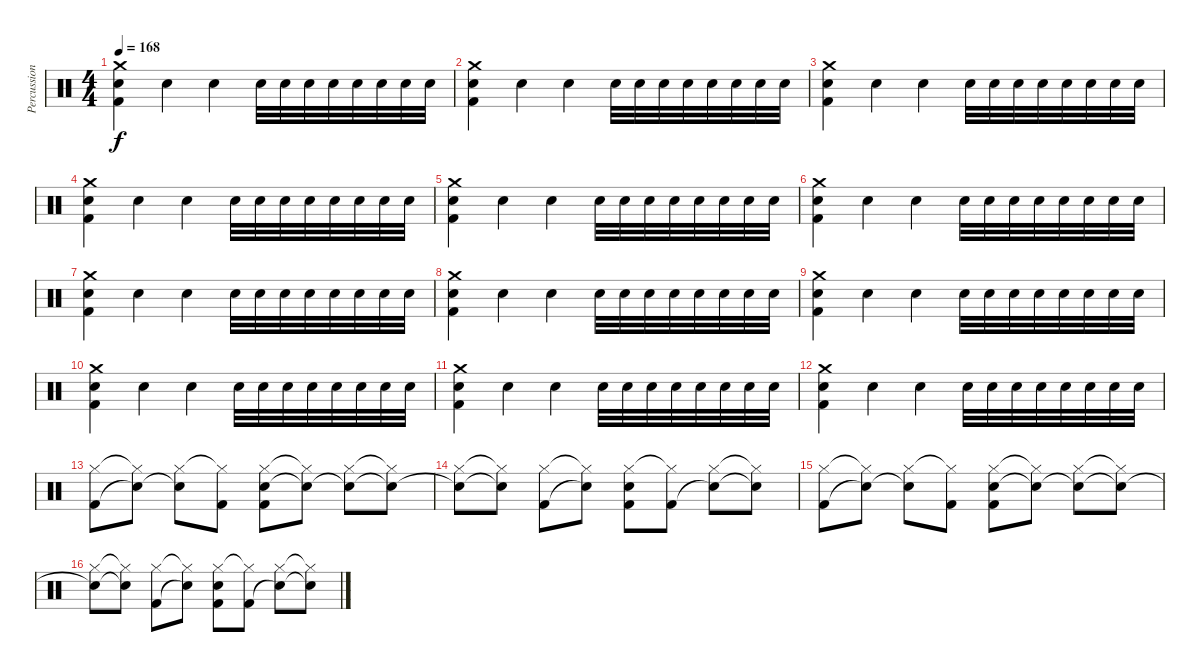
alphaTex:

\track ("Percussion" "Percussion") {instrument percussion}
\staff {score}
\articulation defaults
\ts (4 4)
\tempo 168
\clef neutral
\ks c
("Crash medium (hit)" "Electric Snare (hit)" "Kick (hit) 2").4{dy f} "Electric Snare (hit)".4 "Electric Snare (hit)".4 "Electric Snare (hit)".32 "Electric Snare (hit)".32 "Electric Snare (hit)".32 "Electric Snare (hit)".32 "Electric Snare (hit)".32 "Electric Snare (hit)".32 "Electric Snare (hit)".32 "Electric Snare (hit)".32 |
("Crash medium (hit)" "Electric Snare (hit)" "Kick (hit) 2").4 "Electric Snare (hit)".4 "Electric Snare (hit)".4 "Electric Snare (hit)".32 "Electric Snare (hit)".32 "Electric Snare (hit)".32 "Electric Snare (hit)".32 "Electric Snare (hit)".32 "Electric Snare (hit)".32 "Electric Snare (hit)".32 "Electric Snare (hit)".32 |
("Crash medium (hit)" "Electric Snare (hit)" "Kick (hit) 2").4 "Electric Snare (hit)".4 "Electric Snare (hit)".4 "Electric Snare (hit)".32 "Electric Snare (hit)".32 "Electric Snare (hit)".32 "Electric Snare (hit)".32 "Electric Snare (hit)".32 "Electric Snare (hit)".32 "Electric Snare (hit)".32 "Electric Snare (hit)".32 |
("Crash medium (hit)" "Electric Snare (hit)" "Kick (hit) 2").4 "Electric Snare (hit)".4 "Electric Snare (hit)".4 "Electric Snare (hit)".32 "Electric Snare (hit)".32 "Electric Snare (hit)".32 "Electric Snare (hit)".32 "Electric Snare (hit)".32 "Electric Snare (hit)".32 "Electric Snare (hit)".32 "Electric Snare (hit)".32 |
("Crash medium (hit)" "Electric Snare (hit)" "Kick (hit) 2").4 "Electric Snare (hit)".4 "Electric Snare (hit)".4 "Electric Snare (hit)".32 "Electric Snare (hit)".32 "Electric Snare (hit)".32 "Electric Snare (hit)".32 "Electric Snare (hit)".32 "Electric Snare (hit)".32 "Electric Snare (hit)".32 "Electric Snare (hit)".32 |
("Crash medium (hit)" "Electric Snare (hit)" "Kick (hit) 2").4 "Electric Snare (hit)".4 "Electric Snare (hit)".4 "Electric Snare (hit)".32 "Electric Snare (hit)".32 "Electric Snare (hit)".32 "Electric Snare (hit)".32 "Electric Snare (hit)".32 "Electric Snare (hit)".32 "Electric Snare (hit)".32 "Electric Snare (hit)".32 |
("Crash medium (hit)" "Electric Snare (hit)" "Kick (hit) 2").4 "Electric Snare (hit)".4 "Electric Snare (hit)".4 "Electric Snare (hit)".32 "Electric Snare (hit)".32 "Electric Snare (hit)".32 "Electric Snare (hit)".32 "Electric Snare (hit)".32 "Electric Snare (hit)".32 "Electric Snare (hit)".32 "Electric Snare (hit)".32 |
("Crash medium (hit)" "Electric Snare (hit)" "Kick (hit) 2").4 "Electric Snare (hit)".4 "Electric Snare (hit)".4 "Electric Snare (hit)".32 "Electric Snare (hit)".32 "Electric Snare (hit)".32 "Electric Snare (hit)".32 "Electric Snare (hit)".32 "Electric Snare (hit)".32 "Electric Snare (hit)".32 "Electric Snare (hit)".32 |
("Crash medium (hit)" "Electric Snare (hit)" "Kick (hit) 2").4 "Electric Snare (hit)".4 "Electric Snare (hit)".4 "Electric Snare (hit)".32 "Electric Snare (hit)".32 "Electric Snare (hit)".32 "Electric Snare (hit)".32 "Electric Snare (hit)".32 "Electric Snare (hit)".32 "Electric Snare (hit)".32 "Electric Snare (hit)".32 |
("Crash medium (hit)" "Electric Snare (hit)" "Kick (hit) 2").4 "Electric Snare (hit)".4 "Electric Snare (hit)".4 "Electric Snare (hit)".32 "Electric Snare (hit)".32 "Electric Snare (hit)".32 "Electric Snare (hit)".32 "Electric Snare (hit)".32 "Electric Snare (hit)".32 "Electric Snare (hit)".32 "Electric Snare (hit)".32 |
("Crash medium (hit)" "Electric Snare (hit)" "Kick (hit) 2").4 "Electric Snare (hit)".4 "Electric Snare (hit)".4 "Electric Snare (hit)".32 "Electric Snare (hit)".32 "Electric Snare (hit)".32 "Electric Snare (hit)".32 "Electric Snare (hit)".32 "Electric Snare (hit)".32 "Electric Snare (hit)".32 "Electric Snare (hit)".32 |
("Crash medium (hit)" "Electric Snare (hit)" "Kick (hit) 2").4 "Electric Snare (hit)".4 "Electric Snare (hit)".4 "Electric Snare (hit)".32 "Electric Snare (hit)".32 "Electric Snare (hit)".32 "Electric Snare (hit)".32 "Electric Snare (hit)".32 "Electric Snare (hit)".32 "Electric Snare (hit)".32 "Electric Snare (hit)".32 |
("Hi-Hat (closed)" "Kick (hit) 2").8 ("Hi-Hat (closed)"{t} "Snare (hit)"{t}).8 ("Hi-Hat (closed)" "Snare (hit)"{t}).8 ("Hi-Hat (closed)"{t} "Kick (hit) 2").8 ("Hi-Hat (closed)" "Electric Snare (hit)" "Kick (hit) 2").8 ("Hi-Hat (closed)"{t} "Snare (hit)"{t}).8 ("Hi-Hat (closed)" "Snare (hit)"{t}).8 ("Hi-Hat (closed)"{t} "Snare (hit)"{t}).8 |
("Hi-Hat (closed)" "Snare (hit)"{t}).8 ("Hi-Hat (closed)"{t} "Snare (hit)"{t}).8 ("Hi-Hat (closed)" "Kick (hit) 2").8 ("Hi-Hat (closed)"{t} "Snare (hit)"{t}).8 ("Hi-Hat (closed)" "Electric Snare (hit)" "Kick (hit) 2").8 ("Hi-Hat (closed)"{t} "Kick (hit) 2").8 ("Hi-Hat (closed)" "Snare (hit)"{t}).8 ("Hi-Hat (closed)"{t} "Snare (hit)"{t}).8 |
("Hi-Hat (closed)" "Kick (hit) 2").8 ("Hi-Hat (closed)"{t} "Snare (hit)"{t}).8 ("Hi-Hat (closed)" "Snare (hit)"{t}).8 ("Hi-Hat (closed)"{t} "Kick (hit) 2").8 ("Hi-Hat (closed)" "Electric Snare (hit)" "Kick (hit) 2").8 ("Hi-Hat (closed)"{t} "Snare (hit)"{t}).8 ("Hi-Hat (closed)" "Snare (hit)"{t}).8 ("Hi-Hat (closed)"{t} "Snare (hit)"{t}).8 |
("Hi-Hat (closed)" "Snare (hit)"{t}).8 ("Hi-Hat (closed)"{t} "Snare (hit)"{t}).8 ("Hi-Hat (closed)" "Kick (hit) 2").8 ("Hi-Hat (closed)"{t} "Snare (hit)"{t}).8 ("Hi-Hat (closed)" "Electric Snare (hit)" "Kick (hit) 2").8 ("Hi-Hat (closed)"{t} "Kick (hit) 2").8 ("Hi-Hat (closed)" "Snare (hit)"{t}).8 ("Hi-Hat (closed)"{t} "Snare (hit)"{t}).8
